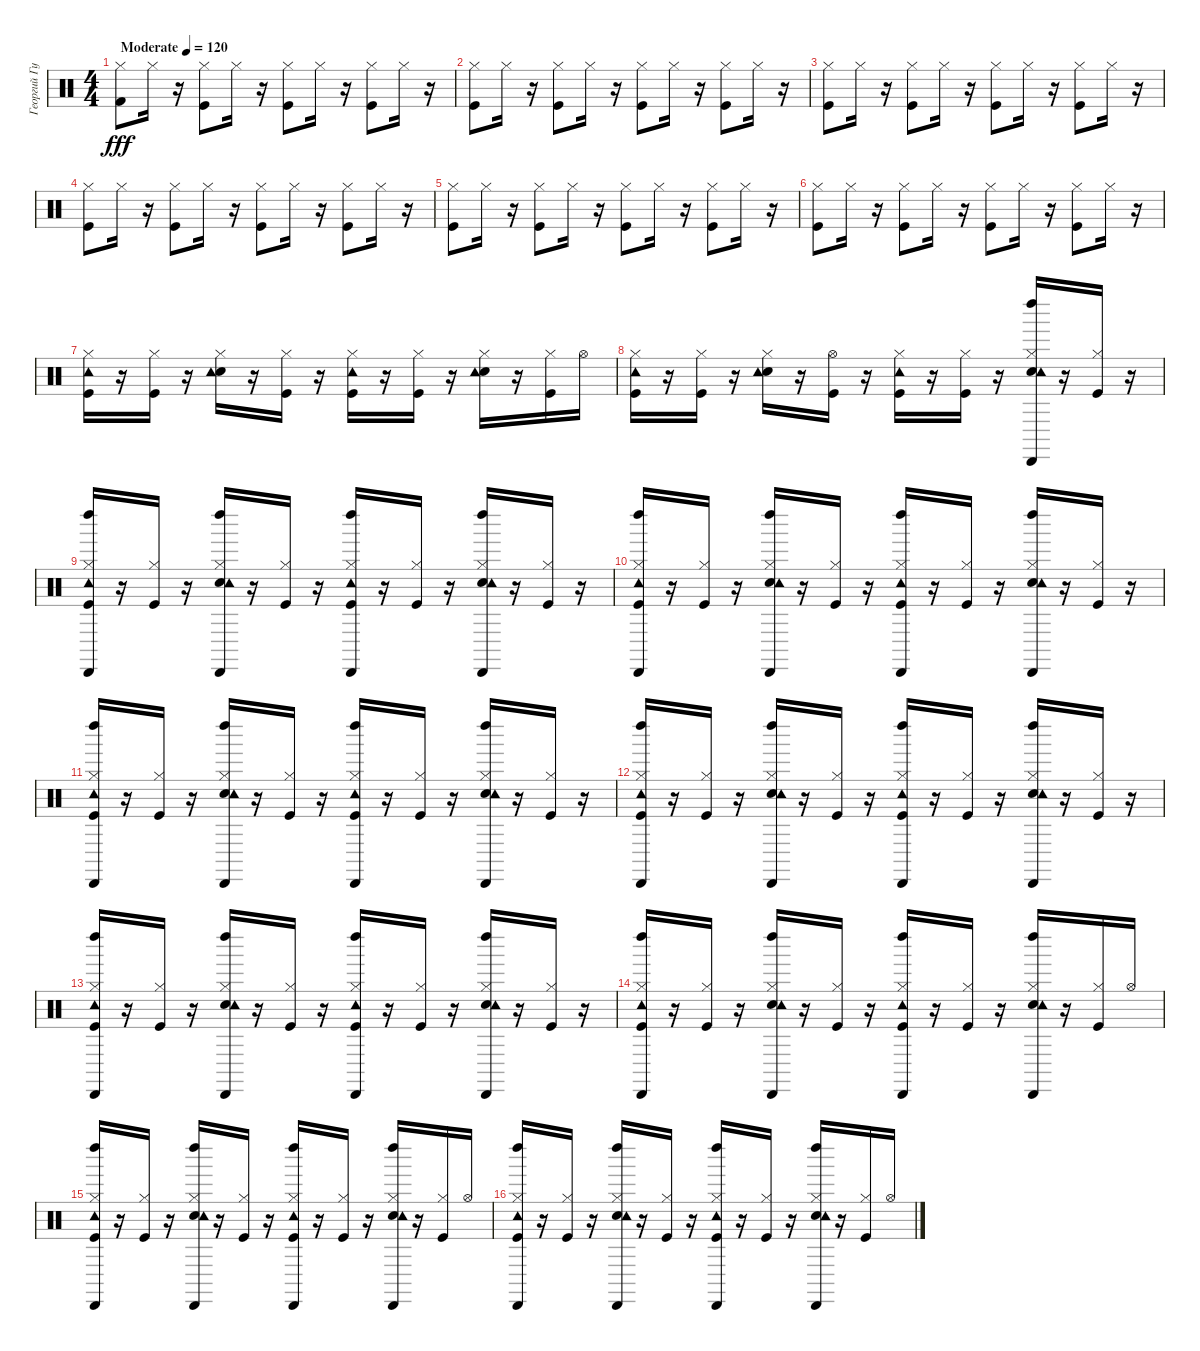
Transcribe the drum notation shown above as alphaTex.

\track ("Георгий Гурьянов (ударные)" "Георгий Гу") {instrument percussion}
\staff {score}
\articulation defaults
\ts (4 4)
\tempo (120 "Moderate")
\clef neutral
\ks c
("Hi-Hat (closed)" "Kick (hit) 2").8{dy fff} "Hi-Hat (closed)".16 r.16 ("Hi-Hat (closed)" "Kick (hit)").8 "Hi-Hat (closed)".16 r.16 ("Hi-Hat (closed)" "Kick (hit)").8 "Hi-Hat (closed)".16 r.16 ("Hi-Hat (closed)" "Kick (hit)").8 "Hi-Hat (closed)".16 r.16 |
("Hi-Hat (closed)" "Kick (hit)").8 "Hi-Hat (closed)".16 r.16 ("Hi-Hat (closed)" "Kick (hit)").8 "Hi-Hat (closed)".16 r.16 ("Hi-Hat (closed)" "Kick (hit)").8 "Hi-Hat (closed)".16 r.16 ("Hi-Hat (closed)" "Kick (hit)").8 "Hi-Hat (closed)".16 r.16 |
("Hi-Hat (closed)" "Kick (hit)").8 "Hi-Hat (closed)".16 r.16 ("Hi-Hat (closed)" "Kick (hit)").8 "Hi-Hat (closed)".16 r.16 ("Hi-Hat (closed)" "Kick (hit)").8 "Hi-Hat (closed)".16 r.16 ("Hi-Hat (closed)" "Kick (hit)").8 "Hi-Hat (closed)".16 r.16 |
("Hi-Hat (closed)" "Kick (hit)").8 "Hi-Hat (closed)".16 r.16 ("Hi-Hat (closed)" "Kick (hit)").8 "Hi-Hat (closed)".16 r.16 ("Hi-Hat (closed)" "Kick (hit)").8 "Hi-Hat (closed)".16 r.16 ("Hi-Hat (closed)" "Kick (hit)").8 "Hi-Hat (closed)".16 r.16 |
("Hi-Hat (closed)" "Kick (hit)").8 "Hi-Hat (closed)".16 r.16 ("Hi-Hat (closed)" "Kick (hit)").8 "Hi-Hat (closed)".16 r.16 ("Hi-Hat (closed)" "Kick (hit)").8 "Hi-Hat (closed)".16 r.16 ("Hi-Hat (closed)" "Kick (hit)").8 "Hi-Hat (closed)".16 r.16 |
("Hi-Hat (closed)" "Kick (hit)").8 "Hi-Hat (closed)".16 r.16 ("Hi-Hat (closed)" "Kick (hit)").8 "Hi-Hat (closed)".16 r.16 ("Hi-Hat (closed)" "Kick (hit)").8 "Hi-Hat (closed)".16 r.16 ("Hi-Hat (closed)" "Kick (hit)").8 "Hi-Hat (closed)".16 r.16 |
("Kick (hit)" "Hi-Hat (closed)" "Tambourine (hit)").16 r.16 ("Kick (hit)" "Hi-Hat (closed)").16 r.16 ("Snare (hit) 2" "Hi-Hat (closed)" "Tambourine (hit)").16 r.16 ("Kick (hit)" "Hi-Hat (closed)").16 r.16 ("Kick (hit)" "Hi-Hat (closed)" "Tambourine (hit)").16 r.16 ("Kick (hit)" "Hi-Hat (closed)").16 r.16 ("Snare (hit) 2" "Hi-Hat (closed)" "Tambourine (hit)").16 r.16 ("Kick (hit)" "Hi-Hat (closed)").16 "Hi-Hat (open)".16 |
("Kick (hit)" "Hi-Hat (closed)" "Tambourine (hit)").16 r.16 ("Kick (hit)" "Hi-Hat (closed)").16 r.16 ("Snare (hit) 2" "Hi-Hat (closed)" "Tambourine (hit)").16 r.16 ("Kick (hit)" "Hi-Hat (open)").16 r.16 ("Kick (hit)" "Hi-Hat (closed)" "Tambourine (hit)").16 r.16 ("Kick (hit)" "Hi-Hat (closed)").16 r.16 ("Snare (hit) 2" "Hi-Hat (closed)" "Tambourine (hit)" "Left Maraca (hit)" "Cabasa (hit)").16 r.16 ("Kick (hit)" "Hi-Hat (closed)").16 r.16 |
("Kick (hit)" "Hi-Hat (closed)" "Tambourine (hit)" "Left Maraca (hit)" "Cabasa (hit)").16 r.16 ("Kick (hit)" "Hi-Hat (closed)").16 r.16 ("Snare (hit) 2" "Hi-Hat (closed)" "Tambourine (hit)" "Left Maraca (hit)" "Cabasa (hit)").16 r.16 ("Kick (hit)" "Hi-Hat (closed)").16 r.16 ("Kick (hit)" "Hi-Hat (closed)" "Tambourine (hit)" "Left Maraca (hit)" "Cabasa (hit)").16 r.16 ("Kick (hit)" "Hi-Hat (closed)").16 r.16 ("Snare (hit) 2" "Hi-Hat (closed)" "Tambourine (hit)" "Left Maraca (hit)" "Cabasa (hit)").16 r.16 ("Kick (hit)" "Hi-Hat (closed)").16 r.16 |
("Kick (hit)" "Hi-Hat (closed)" "Tambourine (hit)" "Left Maraca (hit)" "Cabasa (hit)").16 r.16 ("Kick (hit)" "Hi-Hat (closed)").16 r.16 ("Snare (hit) 2" "Hi-Hat (closed)" "Tambourine (hit)" "Left Maraca (hit)" "Cabasa (hit)").16 r.16 ("Kick (hit)" "Hi-Hat (closed)").16 r.16 ("Kick (hit)" "Hi-Hat (closed)" "Tambourine (hit)" "Left Maraca (hit)" "Cabasa (hit)").16 r.16 ("Kick (hit)" "Hi-Hat (closed)").16 r.16 ("Snare (hit) 2" "Hi-Hat (closed)" "Tambourine (hit)" "Left Maraca (hit)" "Cabasa (hit)").16 r.16 ("Kick (hit)" "Hi-Hat (closed)").16 r.16 |
("Kick (hit)" "Hi-Hat (closed)" "Tambourine (hit)" "Left Maraca (hit)" "Cabasa (hit)").16 r.16 ("Kick (hit)" "Hi-Hat (closed)").16 r.16 ("Snare (hit) 2" "Hi-Hat (closed)" "Tambourine (hit)" "Left Maraca (hit)" "Cabasa (hit)").16 r.16 ("Kick (hit)" "Hi-Hat (closed)").16 r.16 ("Kick (hit)" "Hi-Hat (closed)" "Tambourine (hit)" "Left Maraca (hit)" "Cabasa (hit)").16 r.16 ("Kick (hit)" "Hi-Hat (closed)").16 r.16 ("Snare (hit) 2" "Hi-Hat (closed)" "Tambourine (hit)" "Left Maraca (hit)" "Cabasa (hit)").16 r.16 ("Kick (hit)" "Hi-Hat (closed)").16 r.16 |
("Kick (hit)" "Hi-Hat (closed)" "Tambourine (hit)" "Left Maraca (hit)" "Cabasa (hit)").16 r.16 ("Kick (hit)" "Hi-Hat (closed)").16 r.16 ("Snare (hit) 2" "Hi-Hat (closed)" "Tambourine (hit)" "Left Maraca (hit)" "Cabasa (hit)").16 r.16 ("Kick (hit)" "Hi-Hat (closed)").16 r.16 ("Kick (hit)" "Hi-Hat (closed)" "Tambourine (hit)" "Left Maraca (hit)" "Cabasa (hit)").16 r.16 ("Kick (hit)" "Hi-Hat (closed)").16 r.16 ("Snare (hit) 2" "Hi-Hat (closed)" "Tambourine (hit)" "Left Maraca (hit)" "Cabasa (hit)").16 r.16 ("Kick (hit)" "Hi-Hat (closed)").16 r.16 |
("Kick (hit)" "Hi-Hat (closed)" "Tambourine (hit)" "Left Maraca (hit)" "Cabasa (hit)").16 r.16 ("Kick (hit)" "Hi-Hat (closed)").16 r.16 ("Snare (hit) 2" "Hi-Hat (closed)" "Tambourine (hit)" "Left Maraca (hit)" "Cabasa (hit)").16 r.16 ("Kick (hit)" "Hi-Hat (closed)").16 r.16 ("Kick (hit)" "Hi-Hat (closed)" "Tambourine (hit)" "Left Maraca (hit)" "Cabasa (hit)").16 r.16 ("Kick (hit)" "Hi-Hat (closed)").16 r.16 ("Snare (hit) 2" "Hi-Hat (closed)" "Tambourine (hit)" "Left Maraca (hit)" "Cabasa (hit)").16 r.16 ("Kick (hit)" "Hi-Hat (closed)").16 r.16 |
("Kick (hit)" "Hi-Hat (closed)" "Tambourine (hit)" "Left Maraca (hit)" "Cabasa (hit)").16 r.16 ("Kick (hit)" "Hi-Hat (closed)").16 r.16 ("Snare (hit) 2" "Hi-Hat (closed)" "Tambourine (hit)" "Left Maraca (hit)" "Cabasa (hit)").16 r.16 ("Kick (hit)" "Hi-Hat (closed)").16 r.16 ("Kick (hit)" "Hi-Hat (closed)" "Tambourine (hit)" "Left Maraca (hit)" "Cabasa (hit)").16 r.16 ("Kick (hit)" "Hi-Hat (closed)").16 r.16 ("Snare (hit) 2" "Hi-Hat (closed)" "Tambourine (hit)" "Left Maraca (hit)" "Cabasa (hit)").16 r.16 ("Kick (hit)" "Hi-Hat (closed)").16 "Hi-Hat (open)".16 |
("Kick (hit)" "Hi-Hat (closed)" "Tambourine (hit)" "Left Maraca (hit)" "Cabasa (hit)").16 r.16 ("Kick (hit)" "Hi-Hat (closed)").16 r.16 ("Snare (hit) 2" "Hi-Hat (closed)" "Tambourine (hit)" "Left Maraca (hit)" "Cabasa (hit)").16 r.16 ("Kick (hit)" "Hi-Hat (closed)").16 r.16 ("Kick (hit)" "Hi-Hat (closed)" "Tambourine (hit)" "Left Maraca (hit)" "Cabasa (hit)").16 r.16 ("Kick (hit)" "Hi-Hat (closed)").16 r.16 ("Snare (hit) 2" "Hi-Hat (closed)" "Tambourine (hit)" "Left Maraca (hit)" "Cabasa (hit)").16 r.16 ("Kick (hit)" "Hi-Hat (closed)").16 "Hi-Hat (open)".16 |
("Kick (hit)" "Hi-Hat (closed)" "Tambourine (hit)" "Left Maraca (hit)" "Cabasa (hit)").16 r.16 ("Kick (hit)" "Hi-Hat (closed)").16 r.16 ("Snare (hit) 2" "Hi-Hat (closed)" "Tambourine (hit)" "Left Maraca (hit)" "Cabasa (hit)").16 r.16 ("Kick (hit)" "Hi-Hat (closed)").16 r.16 ("Kick (hit)" "Hi-Hat (closed)" "Tambourine (hit)" "Left Maraca (hit)" "Cabasa (hit)").16 r.16 ("Kick (hit)" "Hi-Hat (closed)").16 r.16 ("Snare (hit) 2" "Hi-Hat (closed)" "Tambourine (hit)" "Left Maraca (hit)" "Cabasa (hit)").16 r.16 ("Kick (hit)" "Hi-Hat (closed)").16 "Hi-Hat (open)".16
